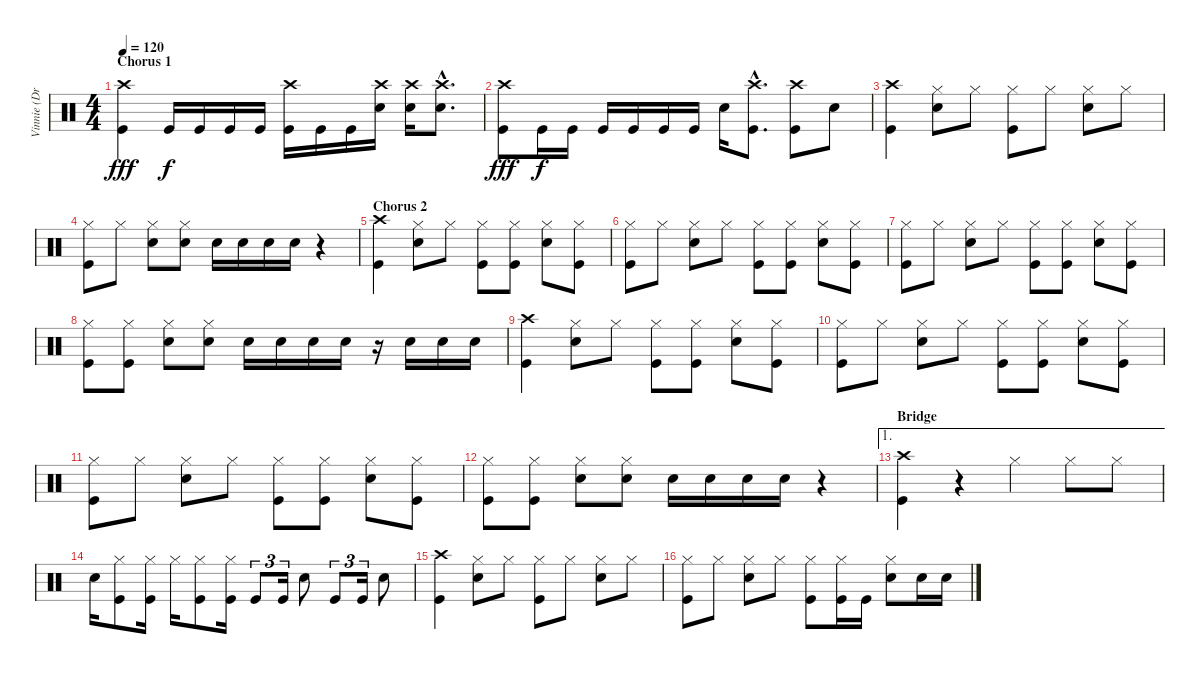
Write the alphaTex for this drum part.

\track ("Vinnie (Drums)" "Vinnie (Dr") {instrument percussion}
\staff {score}
\articulation defaults
\ts (4 4)
\section ("" "Chorus 1")
\tempo 120
\clef neutral
\ks c
("Crash high (hit)" "Kick (hit)").4{dy fff} "Kick (hit)".16{dy f} "Kick (hit)".16 "Kick (hit)".16 "Kick (hit)".16 ("Crash high (hit)" "Kick (hit)").16 "Kick (hit)".16 "Kick (hit)".16 ("Crash high (hit)" "Snare (hit) 2").16 ("Crash high (hit)" "Snare (hit) 2").16 ("Crash high (hit)"{hac} "Snare (hit) 2"{hac}).8{d} |
("Crash high (hit)" "Kick (hit)").8{dy fff} "Kick (hit)".16{dy f} "Kick (hit)".16 "Kick (hit)".16 "Kick (hit)".16 "Kick (hit)".16 "Kick (hit)".16 "Snare (hit) 2".16 ("Crash high (hit)"{hac} "Kick (hit)"{hac}).8{d} ("Crash high (hit)" "Kick (hit)").8 "Snare (hit) 2".8 |
("Crash high (hit)" "Kick (hit)").4 ("Hi-Hat (closed)" "Snare (hit) 2").8 "Hi-Hat (closed)".8 ("Hi-Hat (closed)" "Kick (hit)").8 "Hi-Hat (closed)".8 ("Hi-Hat (closed)" "Snare (hit) 2").8 "Hi-Hat (closed)".8 |
("Hi-Hat (closed)" "Kick (hit)").8 "Hi-Hat (closed)".8 ("Hi-Hat (closed)" "Snare (hit) 2").8 ("Hi-Hat (closed)" "Snare (hit) 2").8 "Snare (hit) 2".16 "Snare (hit) 2".16 "Snare (hit) 2".16 "Snare (hit) 2".16 r.4 |
\section ("" "Chorus 2")
("Crash high (hit)" "Kick (hit)").4 ("Hi-Hat (closed)" "Snare (hit) 2").8 "Hi-Hat (closed)".8 ("Hi-Hat (closed)" "Kick (hit)").8 ("Hi-Hat (closed)" "Kick (hit)").8 ("Hi-Hat (closed)" "Snare (hit) 2").8 ("Hi-Hat (closed)" "Kick (hit)").8 |
("Hi-Hat (closed)" "Kick (hit)").8 "Hi-Hat (closed)".8 ("Hi-Hat (closed)" "Snare (hit) 2").8 "Hi-Hat (closed)".8 ("Hi-Hat (closed)" "Kick (hit)").8 ("Hi-Hat (closed)" "Kick (hit)").8 ("Hi-Hat (closed)" "Snare (hit) 2").8 ("Hi-Hat (closed)" "Kick (hit)").8 |
("Hi-Hat (closed)" "Kick (hit)").8 "Hi-Hat (closed)".8 ("Hi-Hat (closed)" "Snare (hit) 2").8 "Hi-Hat (closed)".8 ("Hi-Hat (closed)" "Kick (hit)").8 ("Hi-Hat (closed)" "Kick (hit)").8 ("Hi-Hat (closed)" "Snare (hit) 2").8 ("Hi-Hat (closed)" "Kick (hit)").8 |
("Hi-Hat (closed)" "Kick (hit)").8 ("Hi-Hat (closed)" "Kick (hit)").8 ("Hi-Hat (closed)" "Snare (hit) 2").8 ("Hi-Hat (closed)" "Snare (hit) 2").8 "Snare (hit) 2".16 "Snare (hit) 2".16 "Snare (hit) 2".16 "Snare (hit) 2".16 r.16 "Snare (hit) 2".16 "Snare (hit) 2".16 "Snare (hit) 2".16 |
("Crash high (hit)" "Kick (hit)").4 ("Hi-Hat (closed)" "Snare (hit) 2").8 "Hi-Hat (closed)".8 ("Hi-Hat (closed)" "Kick (hit)").8 ("Hi-Hat (closed)" "Kick (hit)").8 ("Hi-Hat (closed)" "Snare (hit) 2").8 ("Hi-Hat (closed)" "Kick (hit)").8 |
("Hi-Hat (closed)" "Kick (hit)").8 "Hi-Hat (closed)".8 ("Hi-Hat (closed)" "Snare (hit) 2").8 "Hi-Hat (closed)".8 ("Hi-Hat (closed)" "Kick (hit)").8 ("Hi-Hat (closed)" "Kick (hit)").8 ("Hi-Hat (closed)" "Snare (hit) 2").8 ("Hi-Hat (closed)" "Kick (hit)").8 |
("Hi-Hat (closed)" "Kick (hit)").8 "Hi-Hat (closed)".8 ("Hi-Hat (closed)" "Snare (hit) 2").8 "Hi-Hat (closed)".8 ("Hi-Hat (closed)" "Kick (hit)").8 ("Hi-Hat (closed)" "Kick (hit)").8 ("Hi-Hat (closed)" "Snare (hit) 2").8 ("Hi-Hat (closed)" "Kick (hit)").8 |
("Hi-Hat (closed)" "Kick (hit)").8 ("Hi-Hat (closed)" "Kick (hit)").8 ("Hi-Hat (closed)" "Snare (hit) 2").8 ("Hi-Hat (closed)" "Snare (hit) 2").8 "Snare (hit) 2".16 "Snare (hit) 2".16 "Snare (hit) 2".16 "Snare (hit) 2".16 r.4 |
\ae 1
\section ("" "Bridge")
("Crash high (hit)" "Kick (hit)").4 r.4 "Hi-Hat (closed)".4 "Hi-Hat (closed)".8 "Hi-Hat (closed)".8 |
"Snare (hit) 2".16 ("Hi-Hat (closed)" "Kick (hit)").8 ("Hi-Hat (closed)" "Kick (hit)").16 "Hi-Hat (closed)".16 ("Hi-Hat (closed)" "Kick (hit)").8 ("Hi-Hat (closed)" "Kick (hit)").16 "Kick (hit)".8{tu (3 2)} "Kick (hit)".16{tu (3 2)} "Snare (hit) 2".8 "Kick (hit)".8{tu (3 2)} "Kick (hit)".16{tu (3 2)} "Snare (hit) 2".8 |
("Crash high (hit)" "Kick (hit)").4 ("Hi-Hat (closed)" "Snare (hit) 2").8 "Hi-Hat (closed)".8 ("Hi-Hat (closed)" "Kick (hit)").8 "Hi-Hat (closed)".8 ("Hi-Hat (closed)" "Snare (hit) 2").8 "Hi-Hat (closed)".8 |
("Hi-Hat (closed)" "Kick (hit)").8 "Hi-Hat (closed)".8 ("Hi-Hat (closed)" "Snare (hit) 2").8 "Hi-Hat (closed)".8 ("Hi-Hat (closed)" "Kick (hit)").8 ("Hi-Hat (closed)" "Kick (hit)").16 "Kick (hit)".16 ("Hi-Hat (closed)" "Snare (hit) 2").8 "Snare (hit) 2".16 "Snare (hit) 2".16
